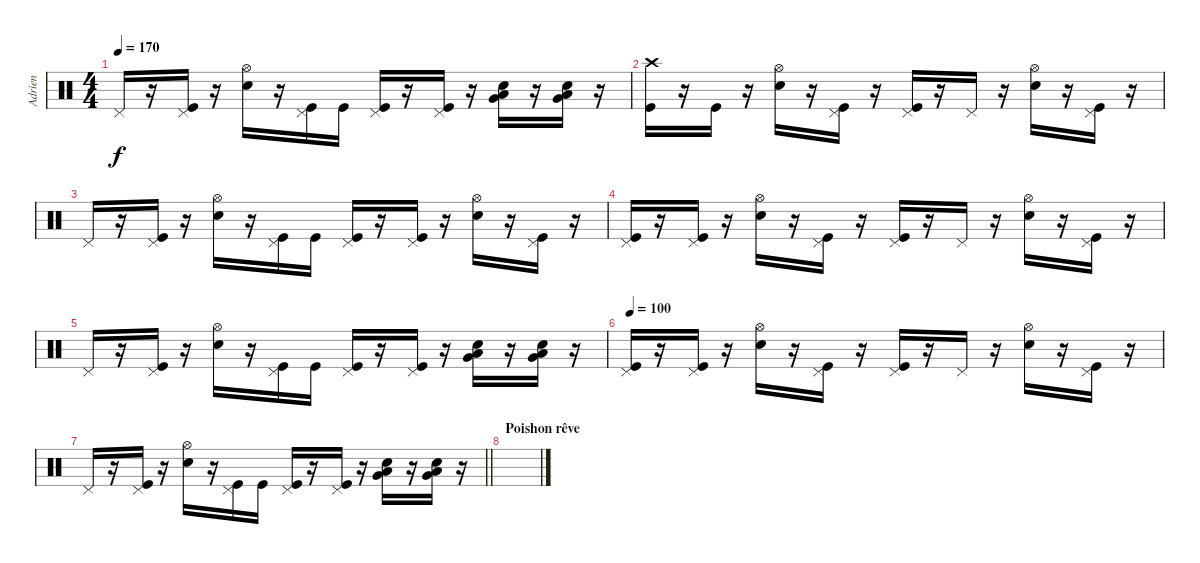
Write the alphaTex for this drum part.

\track ("Adrien" "Adrien") {instrument percussion}
\staff {score}
\articulation defaults
\ts (4 4)
\tempo 170
\clef neutral
\ks c "Pedal Hi-Hat (hit)".16{dy f}
r.16 ("Pedal Hi-Hat (hit)" "Kick (hit)").16 r.16 ("Hi-Hat (open)" "Electric Snare (hit)").16 r.16 ("Pedal Hi-Hat (hit)" "Kick (hit)").16 "Kick (hit)".16 ("Pedal Hi-Hat (hit)" "Kick (hit)").16 r.16 ("Pedal Hi-Hat (hit)" "Kick (hit)").16 r.16 ("Very Low Tom (hit)" "Low Floor Tom (hit)" "Electric Snare (hit)").16 r.16 ("Very Low Tom (hit)" "Low Floor Tom (hit)" "Electric Snare (hit)").16 r.16 |
("Crash high (hit)" "Kick (hit)").16 r.16 "Kick (hit)".16 r.16 ("Hi-Hat (open)" "Electric Snare (hit)").16 r.16 ("Pedal Hi-Hat (hit)" "Kick (hit)").16 r.16 ("Pedal Hi-Hat (hit)" "Kick (hit)").16 r.16 "Pedal Hi-Hat (hit)".16 r.16 ("Hi-Hat (open)" "Electric Snare (hit)").16 r.16 ("Pedal Hi-Hat (hit)" "Kick (hit)").16 r.16 |
"Pedal Hi-Hat (hit)".16 r.16 ("Pedal Hi-Hat (hit)" "Kick (hit)").16 r.16 ("Hi-Hat (open)" "Electric Snare (hit)").16 r.16 ("Pedal Hi-Hat (hit)" "Kick (hit)").16 "Kick (hit)".16 ("Pedal Hi-Hat (hit)" "Kick (hit)").16 r.16 ("Pedal Hi-Hat (hit)" "Kick (hit)").16 r.16 ("Hi-Hat (open)" "Electric Snare (hit)").16 r.16 ("Pedal Hi-Hat (hit)" "Kick (hit)").16 r.16 |
("Pedal Hi-Hat (hit)" "Kick (hit)").16 r.16 ("Pedal Hi-Hat (hit)" "Kick (hit)").16 r.16 ("Hi-Hat (open)" "Electric Snare (hit)").16 r.16 ("Pedal Hi-Hat (hit)" "Kick (hit)").16 r.16 ("Pedal Hi-Hat (hit)" "Kick (hit)").16 r.16 "Pedal Hi-Hat (hit)".16 r.16 ("Hi-Hat (open)" "Electric Snare (hit)").16 r.16 ("Pedal Hi-Hat (hit)" "Kick (hit)").16 r.16 |
"Pedal Hi-Hat (hit)".16 r.16 ("Pedal Hi-Hat (hit)" "Kick (hit)").16 r.16 ("Hi-Hat (open)" "Electric Snare (hit)").16 r.16 ("Pedal Hi-Hat (hit)" "Kick (hit)").16 "Kick (hit)".16 ("Pedal Hi-Hat (hit)" "Kick (hit)").16 r.16 ("Pedal Hi-Hat (hit)" "Kick (hit)").16 r.16 ("Very Low Tom (hit)" "Low Floor Tom (hit)" "Electric Snare (hit)").16 r.16 ("Very Low Tom (hit)" "Low Floor Tom (hit)" "Electric Snare (hit)").16 r.16 |
\tempo 100
("Pedal Hi-Hat (hit)" "Kick (hit)").16 r.16 ("Pedal Hi-Hat (hit)" "Kick (hit)").16 r.16 ("Hi-Hat (open)" "Electric Snare (hit)").16 r.16 ("Pedal Hi-Hat (hit)" "Kick (hit)").16 r.16 ("Pedal Hi-Hat (hit)" "Kick (hit)").16 r.16 "Pedal Hi-Hat (hit)".16 r.16 ("Hi-Hat (open)" "Electric Snare (hit)").16 r.16 ("Pedal Hi-Hat (hit)" "Kick (hit)").16 r.16 |
\barLineRight lightlight "Pedal Hi-Hat (hit)".16
r.16 ("Pedal Hi-Hat (hit)" "Kick (hit)").16 r.16 ("Hi-Hat (open)" "Electric Snare (hit)").16 r.16 ("Pedal Hi-Hat (hit)" "Kick (hit)").16 "Kick (hit)".16 ("Pedal Hi-Hat (hit)" "Kick (hit)").16 r.16 ("Pedal Hi-Hat (hit)" "Kick (hit)").16 r.16 ("Very Low Tom (hit)" "Low Floor Tom (hit)" "Electric Snare (hit)").16 r.16 ("Very Low Tom (hit)" "Low Floor Tom (hit)" "Electric Snare (hit)").16 r.16 |
\section ("" "Poishon rêve")
